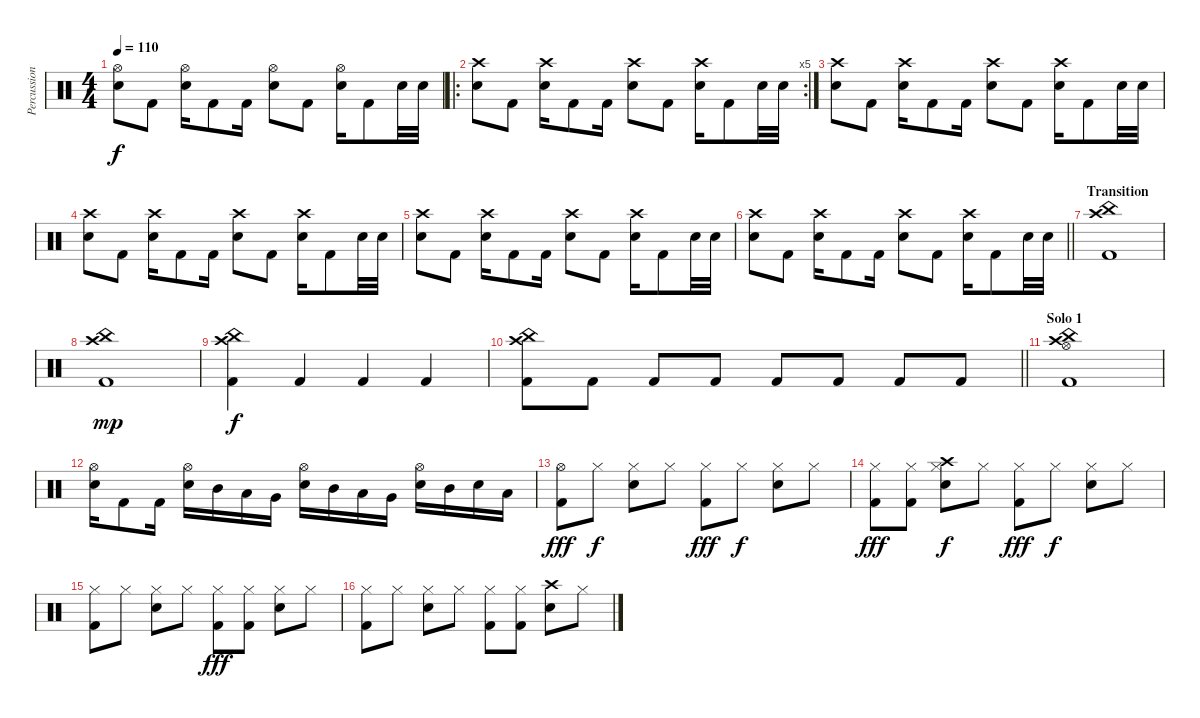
\track ("Percussion" "Percussion") {instrument percussion}
\staff {score}
\articulation defaults
\ts (4 4)
\tempo 110
\clef neutral
\ks c
("Hi-Hat (open)" "Snare (hit) 2").8{dy f} "Kick (hit) 2".8 ("Hi-Hat (open)" "Snare (hit) 2").16 "Kick (hit) 2".8 "Kick (hit) 2".16 ("Hi-Hat (open)" "Snare (hit) 2").8 "Kick (hit) 2".8 ("Hi-Hat (open)" "Snare (hit) 2").16 "Kick (hit) 2".8 "Snare (hit) 2".32 "Snare (hit) 2".32 |
\ro
\rc 5
("Crash high (hit)" "Snare (hit) 2").8 "Kick (hit) 2".8 ("Crash high (hit)" "Snare (hit) 2").16 "Kick (hit) 2".8 "Kick (hit) 2".16 ("Crash high (hit)" "Snare (hit) 2").8 "Kick (hit) 2".8 ("Crash high (hit)" "Snare (hit) 2").16 "Kick (hit) 2".8 "Snare (hit) 2".32 "Snare (hit) 2".32 |
("Crash high (hit)" "Snare (hit) 2").8 "Kick (hit) 2".8 ("Crash high (hit)" "Snare (hit) 2").16 "Kick (hit) 2".8 "Kick (hit) 2".16 ("Crash high (hit)" "Snare (hit) 2").8 "Kick (hit) 2".8 ("Crash high (hit)" "Snare (hit) 2").16 "Kick (hit) 2".8 "Snare (hit) 2".32 "Snare (hit) 2".32 |
("Crash high (hit)" "Snare (hit) 2").8 "Kick (hit) 2".8 ("Crash high (hit)" "Snare (hit) 2").16 "Kick (hit) 2".8 "Kick (hit) 2".16 ("Crash high (hit)" "Snare (hit) 2").8 "Kick (hit) 2".8 ("Crash high (hit)" "Snare (hit) 2").16 "Kick (hit) 2".8 "Snare (hit) 2".32 "Snare (hit) 2".32 |
("Crash high (hit)" "Snare (hit) 2").8 "Kick (hit) 2".8 ("Crash high (hit)" "Snare (hit) 2").16 "Kick (hit) 2".8 "Kick (hit) 2".16 ("Crash high (hit)" "Snare (hit) 2").8 "Kick (hit) 2".8 ("Crash high (hit)" "Snare (hit) 2").16 "Kick (hit) 2".8 "Snare (hit) 2".32 "Snare (hit) 2".32 |
\barLineRight lightlight
("Crash high (hit)" "Snare (hit) 2").8 "Kick (hit) 2".8 ("Crash high (hit)" "Snare (hit) 2").16 "Kick (hit) 2".8 "Kick (hit) 2".16 ("Crash high (hit)" "Snare (hit) 2").8 "Kick (hit) 2".8 ("Crash high (hit)" "Snare (hit) 2").16 "Kick (hit) 2".8 "Snare (hit) 2".32 "Snare (hit) 2".32 |
\section ("" "Transition")
("Crash high (hit)" "China (hit)" "Kick (hit) 2").1 |
("Crash high (hit)" "China (hit)" "Kick (hit) 2").1{dy mp} |
("Crash high (hit)" "China (hit)" "Kick (hit) 2").4{dy f} "Kick (hit) 2".4 "Kick (hit) 2".4 "Kick (hit) 2".4 |
\barLineRight lightlight
("Crash high (hit)" "China (hit)" "Kick (hit) 2").8 "Kick (hit) 2".8 "Kick (hit) 2".8 "Kick (hit) 2".8 "Kick (hit) 2".8 "Kick (hit) 2".8 "Kick (hit) 2".8 "Kick (hit) 2".8 |
\section ("" "Solo 1")
("Crash high (hit)" "Hi-Hat (open)" "China (hit)" "Kick (hit) 2").1 |
("Hi-Hat (open)" "Snare (hit) 2").16 "Kick (hit) 2".8 "Kick (hit) 2".16 ("Hi-Hat (open)" "Snare (hit) 2").16 "Mid Tom (hit)".16 "Low Tom (hit)".16 "Very Low Tom (hit)".16 ("Hi-Hat (open)" "Snare (hit) 2").16 "Mid Tom (hit)".16 "Low Tom (hit)".16 "Very Low Tom (hit)".16 ("Hi-Hat (open)" "Snare (hit) 2").16 "Mid Tom (hit)".16 "Snare (hit) 2".16 "Low Tom (hit)".16 |
("Hi-Hat (open)" "Kick (hit) 2").8{dy fff} "Hi-Hat (closed)".8{dy f} ("Hi-Hat (closed)" "Snare (hit) 2").8 "Hi-Hat (closed)".8 ("Hi-Hat (closed)" "Kick (hit) 2").8{dy fff} "Hi-Hat (closed)".8{dy f} ("Hi-Hat (closed)" "Snare (hit) 2").8 "Hi-Hat (closed)".8 |
("Hi-Hat (closed)" "Kick (hit) 2").8{dy fff} ("Hi-Hat (closed)" "Kick (hit) 2").8 ("Crash high (hit)" "Hi-Hat (closed)" "Snare (hit) 2").8{dy f} "Hi-Hat (closed)".8 ("Hi-Hat (closed)" "Kick (hit) 2").8{dy fff} "Hi-Hat (closed)".8{dy f} ("Hi-Hat (closed)" "Snare (hit) 2").8 "Hi-Hat (closed)".8 |
("Hi-Hat (closed)" "Kick (hit) 2").8 "Hi-Hat (closed)".8 ("Hi-Hat (closed)" "Snare (hit) 2").8 "Hi-Hat (closed)".8 ("Hi-Hat (closed)" "Kick (hit) 2").8{dy fff} ("Hi-Hat (closed)" "Kick (hit) 2").8 ("Hi-Hat (closed)" "Snare (hit) 2").8 "Hi-Hat (closed)".8 |
("Hi-Hat (closed)" "Kick (hit) 2").8 "Hi-Hat (closed)".8 ("Hi-Hat (closed)" "Snare (hit) 2").8 "Hi-Hat (closed)".8 ("Hi-Hat (closed)" "Kick (hit) 2").8 ("Hi-Hat (closed)" "Kick (hit) 2").8 ("Crash high (hit)" "Snare (hit) 2").8 "Hi-Hat (closed)".8
